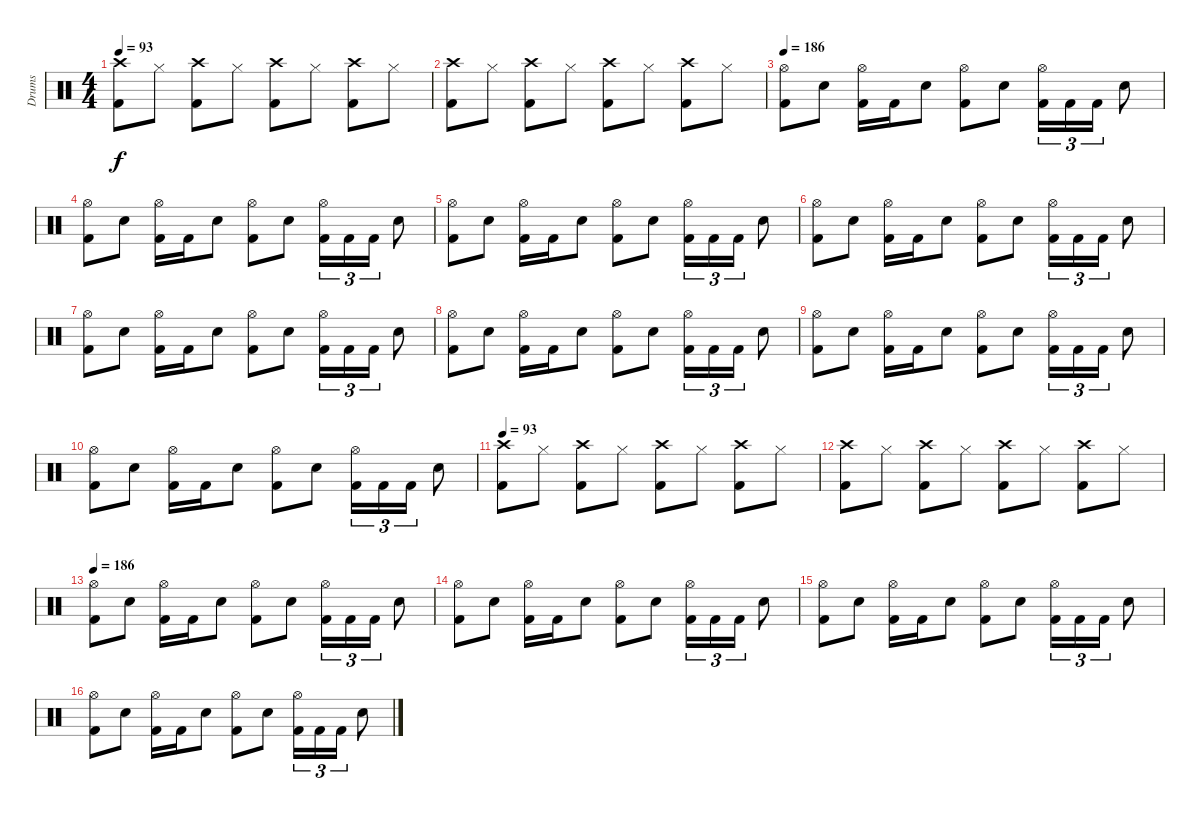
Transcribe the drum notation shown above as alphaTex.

\track ("Drums" "Drums") {instrument percussion}
\staff {score}
\articulation defaults
\ts (4 4)
\tempo 93
\clef neutral
\ks c
("Crash high (hit)" "Kick (hit) 2").8{dy f} "Hi-Hat (closed)".8 ("Crash high (hit)" "Kick (hit) 2").8 "Hi-Hat (closed)".8 ("Crash high (hit)" "Kick (hit) 2").8 "Hi-Hat (closed)".8 ("Crash high (hit)" "Kick (hit) 2").8 "Hi-Hat (closed)".8 |
("Crash high (hit)" "Kick (hit) 2").8 "Hi-Hat (closed)".8 ("Crash high (hit)" "Kick (hit) 2").8 "Hi-Hat (closed)".8 ("Crash high (hit)" "Kick (hit) 2").8 "Hi-Hat (closed)".8 ("Crash high (hit)" "Kick (hit) 2").8 "Hi-Hat (closed)".8 |
\tempo 186
("Hi-Hat (open)" "Kick (hit) 2").8 "Snare (hit) 2".8 ("Hi-Hat (open)" "Kick (hit) 2").16 "Kick (hit) 2".16 "Snare (hit) 2".8 ("Hi-Hat (open)" "Kick (hit) 2").8 "Snare (hit) 2".8 ("Hi-Hat (open)" "Kick (hit) 2").16{tu (3 2)} "Kick (hit) 2".16{tu (3 2)} "Kick (hit) 2".16{tu (3 2)} "Snare (hit) 2".8 |
("Hi-Hat (open)" "Kick (hit) 2").8 "Snare (hit) 2".8 ("Hi-Hat (open)" "Kick (hit) 2").16 "Kick (hit) 2".16 "Snare (hit) 2".8 ("Hi-Hat (open)" "Kick (hit) 2").8 "Snare (hit) 2".8 ("Hi-Hat (open)" "Kick (hit) 2").16{tu (3 2)} "Kick (hit) 2".16{tu (3 2)} "Kick (hit) 2".16{tu (3 2)} "Snare (hit) 2".8 |
("Hi-Hat (open)" "Kick (hit) 2").8 "Snare (hit) 2".8 ("Hi-Hat (open)" "Kick (hit) 2").16 "Kick (hit) 2".16 "Snare (hit) 2".8 ("Hi-Hat (open)" "Kick (hit) 2").8 "Snare (hit) 2".8 ("Hi-Hat (open)" "Kick (hit) 2").16{tu (3 2)} "Kick (hit) 2".16{tu (3 2)} "Kick (hit) 2".16{tu (3 2)} "Snare (hit) 2".8 |
("Hi-Hat (open)" "Kick (hit) 2").8 "Snare (hit) 2".8 ("Hi-Hat (open)" "Kick (hit) 2").16 "Kick (hit) 2".16 "Snare (hit) 2".8 ("Hi-Hat (open)" "Kick (hit) 2").8 "Snare (hit) 2".8 ("Hi-Hat (open)" "Kick (hit) 2").16{tu (3 2)} "Kick (hit) 2".16{tu (3 2)} "Kick (hit) 2".16{tu (3 2)} "Snare (hit) 2".8 |
("Hi-Hat (open)" "Kick (hit) 2").8 "Snare (hit) 2".8 ("Hi-Hat (open)" "Kick (hit) 2").16 "Kick (hit) 2".16 "Snare (hit) 2".8 ("Hi-Hat (open)" "Kick (hit) 2").8 "Snare (hit) 2".8 ("Hi-Hat (open)" "Kick (hit) 2").16{tu (3 2)} "Kick (hit) 2".16{tu (3 2)} "Kick (hit) 2".16{tu (3 2)} "Snare (hit) 2".8 |
("Hi-Hat (open)" "Kick (hit) 2").8 "Snare (hit) 2".8 ("Hi-Hat (open)" "Kick (hit) 2").16 "Kick (hit) 2".16 "Snare (hit) 2".8 ("Hi-Hat (open)" "Kick (hit) 2").8 "Snare (hit) 2".8 ("Hi-Hat (open)" "Kick (hit) 2").16{tu (3 2)} "Kick (hit) 2".16{tu (3 2)} "Kick (hit) 2".16{tu (3 2)} "Snare (hit) 2".8 |
("Hi-Hat (open)" "Kick (hit) 2").8 "Snare (hit) 2".8 ("Hi-Hat (open)" "Kick (hit) 2").16 "Kick (hit) 2".16 "Snare (hit) 2".8 ("Hi-Hat (open)" "Kick (hit) 2").8 "Snare (hit) 2".8 ("Hi-Hat (open)" "Kick (hit) 2").16{tu (3 2)} "Kick (hit) 2".16{tu (3 2)} "Kick (hit) 2".16{tu (3 2)} "Snare (hit) 2".8 |
("Hi-Hat (open)" "Kick (hit) 2").8 "Snare (hit) 2".8 ("Hi-Hat (open)" "Kick (hit) 2").16 "Kick (hit) 2".16 "Snare (hit) 2".8 ("Hi-Hat (open)" "Kick (hit) 2").8 "Snare (hit) 2".8 ("Hi-Hat (open)" "Kick (hit) 2").16{tu (3 2)} "Kick (hit) 2".16{tu (3 2)} "Kick (hit) 2".16{tu (3 2)} "Snare (hit) 2".8 |
\tempo 93
("Crash high (hit)" "Kick (hit) 2").8 "Hi-Hat (closed)".8 ("Crash high (hit)" "Kick (hit) 2").8 "Hi-Hat (closed)".8 ("Crash high (hit)" "Kick (hit) 2").8 "Hi-Hat (closed)".8 ("Crash high (hit)" "Kick (hit) 2").8 "Hi-Hat (closed)".8 |
("Crash high (hit)" "Kick (hit) 2").8 "Hi-Hat (closed)".8 ("Crash high (hit)" "Kick (hit) 2").8 "Hi-Hat (closed)".8 ("Crash high (hit)" "Kick (hit) 2").8 "Hi-Hat (closed)".8 ("Crash high (hit)" "Kick (hit) 2").8 "Hi-Hat (closed)".8 |
\tempo 186
("Hi-Hat (open)" "Kick (hit) 2").8 "Snare (hit) 2".8 ("Hi-Hat (open)" "Kick (hit) 2").16 "Kick (hit) 2".16 "Snare (hit) 2".8 ("Hi-Hat (open)" "Kick (hit) 2").8 "Snare (hit) 2".8 ("Hi-Hat (open)" "Kick (hit) 2").16{tu (3 2)} "Kick (hit) 2".16{tu (3 2)} "Kick (hit) 2".16{tu (3 2)} "Snare (hit) 2".8 |
("Hi-Hat (open)" "Kick (hit) 2").8 "Snare (hit) 2".8 ("Hi-Hat (open)" "Kick (hit) 2").16 "Kick (hit) 2".16 "Snare (hit) 2".8 ("Hi-Hat (open)" "Kick (hit) 2").8 "Snare (hit) 2".8 ("Hi-Hat (open)" "Kick (hit) 2").16{tu (3 2)} "Kick (hit) 2".16{tu (3 2)} "Kick (hit) 2".16{tu (3 2)} "Snare (hit) 2".8 |
("Hi-Hat (open)" "Kick (hit) 2").8 "Snare (hit) 2".8 ("Hi-Hat (open)" "Kick (hit) 2").16 "Kick (hit) 2".16 "Snare (hit) 2".8 ("Hi-Hat (open)" "Kick (hit) 2").8 "Snare (hit) 2".8 ("Hi-Hat (open)" "Kick (hit) 2").16{tu (3 2)} "Kick (hit) 2".16{tu (3 2)} "Kick (hit) 2".16{tu (3 2)} "Snare (hit) 2".8 |
("Hi-Hat (open)" "Kick (hit) 2").8 "Snare (hit) 2".8 ("Hi-Hat (open)" "Kick (hit) 2").16 "Kick (hit) 2".16 "Snare (hit) 2".8 ("Hi-Hat (open)" "Kick (hit) 2").8 "Snare (hit) 2".8 ("Hi-Hat (open)" "Kick (hit) 2").16{tu (3 2)} "Kick (hit) 2".16{tu (3 2)} "Kick (hit) 2".16{tu (3 2)} "Snare (hit) 2".8
